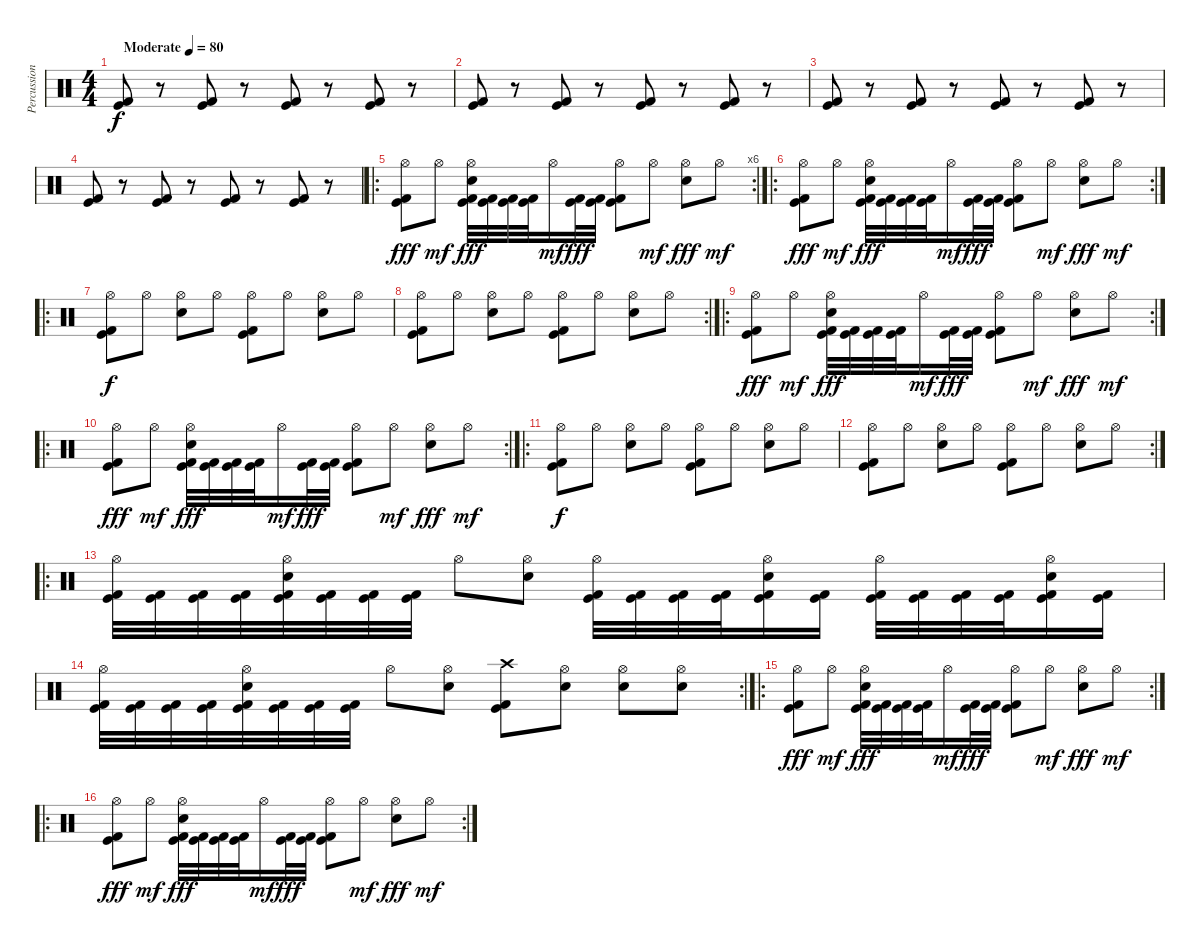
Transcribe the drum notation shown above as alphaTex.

\track ("Percussion" "Percussion") {instrument percussion}
\staff {score}
\articulation defaults
\ts (4 4)
\tempo (80 "Moderate")
\clef neutral
\ks c
("Kick (hit)" "Kick (hit) 2").8{dy f} r.8 ("Kick (hit)" "Kick (hit) 2").8 r.8 ("Kick (hit)" "Kick (hit) 2").8 r.8 ("Kick (hit)" "Kick (hit) 2").8 r.8 |
("Kick (hit)" "Kick (hit) 2").8 r.8 ("Kick (hit)" "Kick (hit) 2").8 r.8 ("Kick (hit)" "Kick (hit) 2").8 r.8 ("Kick (hit)" "Kick (hit) 2").8 r.8 |
("Kick (hit)" "Kick (hit) 2").8 r.8 ("Kick (hit)" "Kick (hit) 2").8 r.8 ("Kick (hit)" "Kick (hit) 2").8 r.8 ("Kick (hit)" "Kick (hit) 2").8 r.8 |
("Kick (hit)" "Kick (hit) 2").8 r.8 ("Kick (hit)" "Kick (hit) 2").8 r.8 ("Kick (hit)" "Kick (hit) 2").8 r.8 ("Kick (hit)" "Kick (hit) 2").8 r.8 |
\ro
\rc 6
("Hi-Hat (open)" "Kick (hit) 2" "Kick (hit)").8{dy fff} "Hi-Hat (open)".8{dy mf} ("Electric Snare (hit)" "Hi-Hat (open)" "Kick (hit) 2" "Kick (hit)").32{dy fff} ("Kick (hit) 2" "Kick (hit)").32 ("Kick (hit) 2" "Kick (hit)").32 ("Kick (hit) 2" "Kick (hit)").32 "Hi-Hat (open)".16{dy mf} ("Kick (hit) 2" "Kick (hit)").32{dy fff} ("Kick (hit) 2" "Kick (hit)").32 ("Hi-Hat (open)" "Kick (hit) 2" "Kick (hit)").8 "Hi-Hat (open)".8{dy mf} ("Hi-Hat (open)" "Electric Snare (hit)").8{dy fff} "Hi-Hat (open)".8{dy mf} |
\ro
\rc 2
("Hi-Hat (open)" "Kick (hit) 2" "Kick (hit)").8{dy fff} "Hi-Hat (open)".8{dy mf} ("Electric Snare (hit)" "Hi-Hat (open)" "Kick (hit) 2" "Kick (hit)").32{dy fff} ("Kick (hit) 2" "Kick (hit)").32 ("Kick (hit) 2" "Kick (hit)").32 ("Kick (hit) 2" "Kick (hit)").32 "Hi-Hat (open)".16{dy mf} ("Kick (hit) 2" "Kick (hit)").32{dy fff} ("Kick (hit) 2" "Kick (hit)").32 ("Hi-Hat (open)" "Kick (hit) 2" "Kick (hit)").8 "Hi-Hat (open)".8{dy mf} ("Hi-Hat (open)" "Electric Snare (hit)").8{dy fff} "Hi-Hat (open)".8{dy mf} |
\ro
("Hi-Hat (open)" "Kick (hit)" "Kick (hit) 2").8{dy f} "Hi-Hat (open)".8 ("Hi-Hat (open)" "Electric Snare (hit)").8 "Hi-Hat (open)".8 ("Hi-Hat (open)" "Kick (hit) 2" "Kick (hit)").8 "Hi-Hat (open)".8 ("Hi-Hat (open)" "Electric Snare (hit)").8 "Hi-Hat (open)".8 |
\rc 2
("Hi-Hat (open)" "Kick (hit)" "Kick (hit) 2").8 "Hi-Hat (open)".8 ("Hi-Hat (open)" "Electric Snare (hit)").8 "Hi-Hat (open)".8 ("Hi-Hat (open)" "Kick (hit)" "Kick (hit) 2").8 "Hi-Hat (open)".8 ("Hi-Hat (open)" "Electric Snare (hit)").8 "Hi-Hat (open)".8 |
\ro
\rc 2
("Hi-Hat (open)" "Kick (hit) 2" "Kick (hit)").8{dy fff} "Hi-Hat (open)".8{dy mf} ("Electric Snare (hit)" "Hi-Hat (open)" "Kick (hit) 2" "Kick (hit)").32{dy fff} ("Kick (hit) 2" "Kick (hit)").32 ("Kick (hit) 2" "Kick (hit)").32 ("Kick (hit) 2" "Kick (hit)").32 "Hi-Hat (open)".16{dy mf} ("Kick (hit) 2" "Kick (hit)").32{dy fff} ("Kick (hit) 2" "Kick (hit)").32 ("Hi-Hat (open)" "Kick (hit) 2" "Kick (hit)").8 "Hi-Hat (open)".8{dy mf} ("Hi-Hat (open)" "Electric Snare (hit)").8{dy fff} "Hi-Hat (open)".8{dy mf} |
\ro
\rc 2
("Hi-Hat (open)" "Kick (hit) 2" "Kick (hit)").8{dy fff} "Hi-Hat (open)".8{dy mf} ("Electric Snare (hit)" "Hi-Hat (open)" "Kick (hit) 2" "Kick (hit)").32{dy fff} ("Kick (hit) 2" "Kick (hit)").32 ("Kick (hit) 2" "Kick (hit)").32 ("Kick (hit) 2" "Kick (hit)").32 "Hi-Hat (open)".16{dy mf} ("Kick (hit) 2" "Kick (hit)").32{dy fff} ("Kick (hit) 2" "Kick (hit)").32 ("Hi-Hat (open)" "Kick (hit) 2" "Kick (hit)").8 "Hi-Hat (open)".8{dy mf} ("Hi-Hat (open)" "Electric Snare (hit)").8{dy fff} "Hi-Hat (open)".8{dy mf} |
\ro
("Hi-Hat (open)" "Kick (hit)" "Kick (hit) 2").8{dy f} "Hi-Hat (open)".8 ("Hi-Hat (open)" "Electric Snare (hit)").8 "Hi-Hat (open)".8 ("Hi-Hat (open)" "Kick (hit) 2" "Kick (hit)").8 "Hi-Hat (open)".8 ("Hi-Hat (open)" "Electric Snare (hit)").8 "Hi-Hat (open)".8 |
\rc 2
("Hi-Hat (open)" "Kick (hit)" "Kick (hit) 2").8 "Hi-Hat (open)".8 ("Hi-Hat (open)" "Electric Snare (hit)").8 "Hi-Hat (open)".8 ("Hi-Hat (open)" "Kick (hit)" "Kick (hit) 2").8 "Hi-Hat (open)".8 ("Hi-Hat (open)" "Electric Snare (hit)").8 "Hi-Hat (open)".8 |
\ro
("Hi-Hat (open)" "Kick (hit)" "Kick (hit) 2").32 ("Kick (hit)" "Kick (hit) 2").32 ("Kick (hit)" "Kick (hit) 2").32 ("Kick (hit)" "Kick (hit) 2").32 ("Hi-Hat (open)" "Electric Snare (hit)" "Kick (hit)" "Kick (hit) 2").32 ("Kick (hit)" "Kick (hit) 2").32 ("Kick (hit)" "Kick (hit) 2").32 ("Kick (hit)" "Kick (hit) 2").32 "Hi-Hat (open)".8 ("Hi-Hat (open)" "Electric Snare (hit)").8 ("Hi-Hat (open)" "Kick (hit)" "Kick (hit) 2").32 ("Kick (hit)" "Kick (hit) 2").32 ("Kick (hit)" "Kick (hit) 2").32 ("Kick (hit)" "Kick (hit) 2").32 ("Electric Snare (hit)" "Hi-Hat (open)" "Kick (hit)" "Kick (hit) 2").16 ("Kick (hit)" "Kick (hit) 2").16 ("Hi-Hat (open)" "Kick (hit)" "Kick (hit) 2").32 ("Kick (hit)" "Kick (hit) 2").32 ("Kick (hit)" "Kick (hit) 2").32 ("Kick (hit)" "Kick (hit) 2").32 ("Electric Snare (hit)" "Hi-Hat (open)" "Kick (hit)" "Kick (hit) 2").16 ("Kick (hit)" "Kick (hit) 2").16 |
\rc 2
("Hi-Hat (open)" "Kick (hit)" "Kick (hit) 2").32 ("Kick (hit)" "Kick (hit) 2").32 ("Kick (hit)" "Kick (hit) 2").32 ("Kick (hit)" "Kick (hit) 2").32 ("Electric Snare (hit)" "Hi-Hat (open)" "Kick (hit)" "Kick (hit) 2").32 ("Kick (hit)" "Kick (hit) 2").32 ("Kick (hit)" "Kick (hit) 2").32 ("Kick (hit)" "Kick (hit) 2").32 "Hi-Hat (open)".8 ("Electric Snare (hit)" "Hi-Hat (open)").8 ("Crash high (hit)" "Kick (hit)" "Kick (hit) 2").8 ("Electric Snare (hit)" "Hi-Hat (open)").8 ("Hi-Hat (open)" "Electric Snare (hit)").8 ("Electric Snare (hit)" "Hi-Hat (open)").8 |
\ro
\rc 2
("Hi-Hat (open)" "Kick (hit) 2" "Kick (hit)").8{dy fff} "Hi-Hat (open)".8{dy mf} ("Electric Snare (hit)" "Hi-Hat (open)" "Kick (hit) 2" "Kick (hit)").32{dy fff} ("Kick (hit) 2" "Kick (hit)").32 ("Kick (hit) 2" "Kick (hit)").32 ("Kick (hit) 2" "Kick (hit)").32 "Hi-Hat (open)".16{dy mf} ("Kick (hit) 2" "Kick (hit)").32{dy fff} ("Kick (hit) 2" "Kick (hit)").32 ("Hi-Hat (open)" "Kick (hit) 2" "Kick (hit)").8 "Hi-Hat (open)".8{dy mf} ("Hi-Hat (open)" "Electric Snare (hit)").8{dy fff} "Hi-Hat (open)".8{dy mf} |
\ro
\rc 2
("Hi-Hat (open)" "Kick (hit) 2" "Kick (hit)").8{dy fff} "Hi-Hat (open)".8{dy mf} ("Electric Snare (hit)" "Hi-Hat (open)" "Kick (hit) 2" "Kick (hit)").32{dy fff} ("Kick (hit) 2" "Kick (hit)").32 ("Kick (hit) 2" "Kick (hit)").32 ("Kick (hit) 2" "Kick (hit)").32 "Hi-Hat (open)".16{dy mf} ("Kick (hit) 2" "Kick (hit)").32{dy fff} ("Kick (hit) 2" "Kick (hit)").32 ("Hi-Hat (open)" "Kick (hit) 2" "Kick (hit)").8 "Hi-Hat (open)".8{dy mf} ("Hi-Hat (open)" "Electric Snare (hit)").8{dy fff} "Hi-Hat (open)".8{dy mf}
